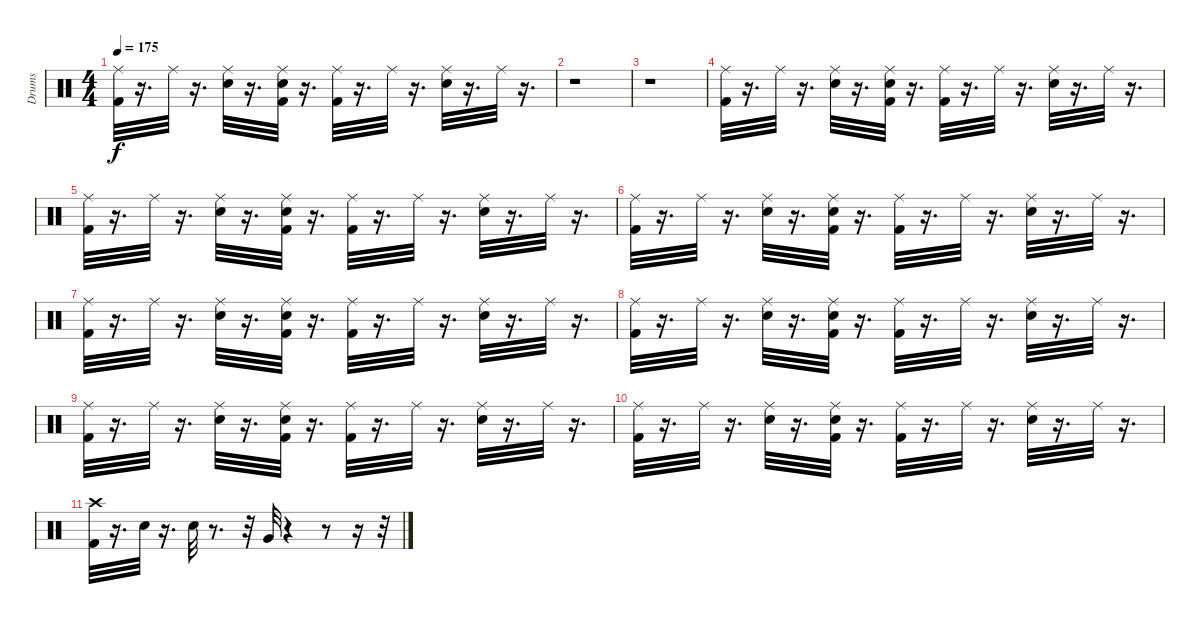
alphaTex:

\track ("Drums" "Drums") {instrument percussion}
\staff {score}
\articulation defaults
\ts (4 4)
\tempo 175
\clef neutral
\ks c
("Kick (hit) 2" "Ride (middle)").32{dy f} r.16{d} "Ride (middle)".32 r.16{d} ("Ride (middle)" "Snare (hit) 2").32 r.16{d} ("Snare (hit) 2" "Kick (hit) 2" "Ride (middle)").32 r.16{d} ("Kick (hit) 2" "Ride (middle)").32 r.16{d} "Ride (middle)".32 r.16{d} ("Snare (hit) 2" "Ride (middle)").32 r.16{d} "Ride (middle)".32 r.16{d} |
r.1 |
r.1 |
("Kick (hit) 2" "Ride (middle)").32 r.16{d} "Ride (middle)".32 r.16{d} ("Ride (middle)" "Snare (hit) 2").32 r.16{d} ("Kick (hit) 2" "Snare (hit) 2" "Ride (middle)").32 r.16{d} ("Kick (hit) 2" "Ride (middle)").32 r.16{d} "Ride (middle)".32 r.16{d} ("Snare (hit) 2" "Ride (middle)").32 r.16{d} "Ride (middle)".32 r.16{d} |
("Kick (hit) 2" "Ride (middle)").32 r.16{d} "Ride (middle)".32 r.16{d} ("Ride (middle)" "Snare (hit) 2").32 r.16{d} ("Snare (hit) 2" "Kick (hit) 2" "Ride (middle)").32 r.16{d} ("Kick (hit) 2" "Ride (middle)").32 r.16{d} "Ride (middle)".32 r.16{d} ("Snare (hit) 2" "Ride (middle)").32 r.16{d} "Ride (middle)".32 r.16{d} |
("Kick (hit) 2" "Ride (middle)").32 r.16{d} "Ride (middle)".32 r.16{d} ("Ride (middle)" "Snare (hit) 2").32 r.16{d} ("Kick (hit) 2" "Snare (hit) 2" "Ride (middle)").32 r.16{d} ("Kick (hit) 2" "Ride (middle)").32 r.16{d} "Ride (middle)".32 r.16{d} ("Snare (hit) 2" "Ride (middle)").32 r.16{d} "Ride (middle)".32 r.16{d} |
("Kick (hit) 2" "Ride (middle)").32 r.16{d} "Ride (middle)".32 r.16{d} ("Ride (middle)" "Snare (hit) 2").32 r.16{d} ("Snare (hit) 2" "Kick (hit) 2" "Ride (middle)").32 r.16{d} ("Kick (hit) 2" "Ride (middle)").32 r.16{d} "Ride (middle)".32 r.16{d} ("Snare (hit) 2" "Ride (middle)").32 r.16{d} "Ride (middle)".32 r.16{d} |
("Kick (hit) 2" "Ride (middle)").32 r.16{d} "Ride (middle)".32 r.16{d} ("Ride (middle)" "Snare (hit) 2").32 r.16{d} ("Kick (hit) 2" "Snare (hit) 2" "Ride (middle)").32 r.16{d} ("Kick (hit) 2" "Ride (middle)").32 r.16{d} "Ride (middle)".32 r.16{d} ("Snare (hit) 2" "Ride (middle)").32 r.16{d} "Ride (middle)".32 r.16{d} |
("Kick (hit) 2" "Ride (middle)").32 r.16{d} "Ride (middle)".32 r.16{d} ("Ride (middle)" "Snare (hit) 2").32 r.16{d} ("Snare (hit) 2" "Kick (hit) 2" "Ride (middle)").32 r.16{d} ("Kick (hit) 2" "Ride (middle)").32 r.16{d} "Ride (middle)".32 r.16{d} ("Snare (hit) 2" "Ride (middle)").32 r.16{d} "Ride (middle)".32 r.16{d} |
("Kick (hit) 2" "Ride (middle)").32 r.16{d} "Ride (middle)".32 r.16{d} ("Ride (middle)" "Snare (hit) 2").32 r.16{d} ("Kick (hit) 2" "Snare (hit) 2" "Ride (middle)").32 r.16{d} ("Kick (hit) 2" "Ride (middle)").32 r.16{d} "Ride (middle)".32 r.16{d} ("Snare (hit) 2" "Ride (middle)").32 r.16{d} "Ride (middle)".32 r.16{d} |
("Kick (hit) 2" "Crash high (hit)").32 r.16{d} "Hand Clap (hit)".32 r.16{d} "Hand Clap (hit)".32 r.8{d} r.32 "Very Low Tom (hit)".32 r.4 r.8 r.16 r.32
